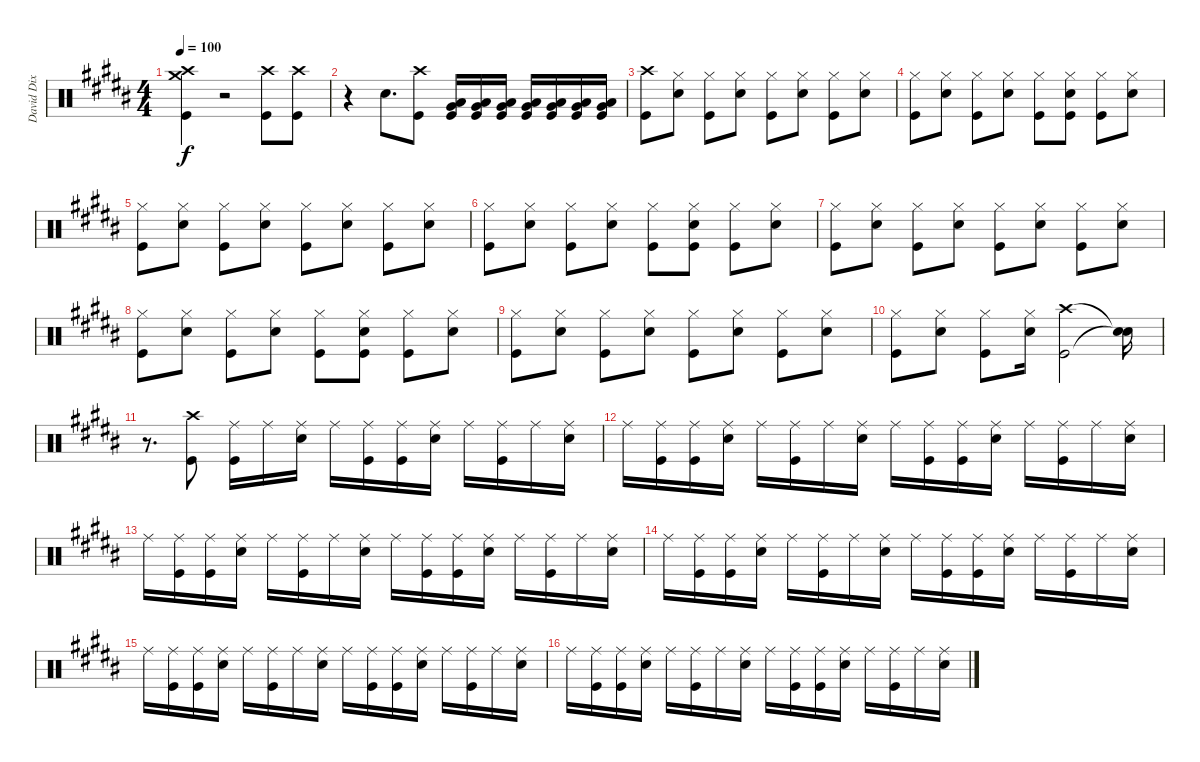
\track ("David Dix Drums" "David Dix ") {instrument percussion}
\staff {score}
\articulation defaults
\ts (4 4)
\tempo 100
\clef neutral
\ks g#minor
("Crash high (hit)" "Crash medium (hit)" "Kick (hit)").4{dy f} r.2 ("Crash high (hit)" "Kick (hit)").8 ("Crash high (hit)" "Kick (hit)").8 |
r.4 "Snare (hit) 2".8{d} ("Crash high (hit)" "Kick (hit)").8 ("Very Low Tom (hit)" "Low Floor Tom (hit)" "Kick (hit)").16 ("Very Low Tom (hit)" "Low Floor Tom (hit)" "Kick (hit)").16 ("Very Low Tom (hit)" "Low Floor Tom (hit)" "Kick (hit)").16 ("Very Low Tom (hit)" "Low Floor Tom (hit)" "Kick (hit)").16 ("Very Low Tom (hit)" "Low Floor Tom (hit)" "Kick (hit)").16 ("Very Low Tom (hit)" "Low Floor Tom (hit)" "Kick (hit)").16 ("Very Low Tom (hit)" "Low Floor Tom (hit)" "Kick (hit)").16 |
("Crash high (hit)" "Kick (hit)").8 ("Hi-Hat (closed)" "Snare (hit) 2").8 ("Hi-Hat (closed)" "Kick (hit)").8 ("Hi-Hat (closed)" "Snare (hit) 2").8 ("Hi-Hat (closed)" "Kick (hit)").8 ("Hi-Hat (closed)" "Snare (hit) 2").8 ("Hi-Hat (closed)" "Kick (hit)").8 ("Hi-Hat (closed)" "Snare (hit) 2").8 |
("Hi-Hat (closed)" "Kick (hit)").8 ("Hi-Hat (closed)" "Snare (hit) 2").8 ("Hi-Hat (closed)" "Kick (hit)").8 ("Hi-Hat (closed)" "Snare (hit) 2").8 ("Hi-Hat (closed)" "Kick (hit)").8 ("Hi-Hat (closed)" "Snare (hit) 2" "Kick (hit)").8 ("Hi-Hat (closed)" "Kick (hit)").8 ("Hi-Hat (closed)" "Snare (hit) 2").8 |
("Hi-Hat (closed)" "Kick (hit)").8 ("Hi-Hat (closed)" "Snare (hit) 2").8 ("Hi-Hat (closed)" "Kick (hit)").8 ("Hi-Hat (closed)" "Snare (hit) 2").8 ("Hi-Hat (closed)" "Kick (hit)").8 ("Hi-Hat (closed)" "Snare (hit) 2").8 ("Hi-Hat (closed)" "Kick (hit)").8 ("Hi-Hat (closed)" "Snare (hit) 2").8 |
("Hi-Hat (closed)" "Kick (hit)").8 ("Hi-Hat (closed)" "Snare (hit) 2").8 ("Hi-Hat (closed)" "Kick (hit)").8 ("Hi-Hat (closed)" "Snare (hit) 2").8 ("Hi-Hat (closed)" "Kick (hit)").8 ("Hi-Hat (closed)" "Snare (hit) 2" "Kick (hit)").8 ("Hi-Hat (closed)" "Kick (hit)").8 ("Hi-Hat (closed)" "Snare (hit) 2").8 |
("Hi-Hat (closed)" "Kick (hit)").8 ("Hi-Hat (closed)" "Snare (hit) 2").8 ("Hi-Hat (closed)" "Kick (hit)").8 ("Hi-Hat (closed)" "Snare (hit) 2").8 ("Hi-Hat (closed)" "Kick (hit)").8 ("Hi-Hat (closed)" "Snare (hit) 2").8 ("Hi-Hat (closed)" "Kick (hit)").8 ("Hi-Hat (closed)" "Snare (hit) 2").8 |
("Hi-Hat (closed)" "Kick (hit)").8 ("Hi-Hat (closed)" "Snare (hit) 2").8 ("Hi-Hat (closed)" "Kick (hit)").8 ("Hi-Hat (closed)" "Snare (hit) 2").8 ("Hi-Hat (closed)" "Kick (hit)").8 ("Hi-Hat (closed)" "Snare (hit) 2" "Kick (hit)").8 ("Hi-Hat (closed)" "Kick (hit)").8 ("Hi-Hat (closed)" "Snare (hit) 2").8 |
("Hi-Hat (closed)" "Kick (hit)").8 ("Hi-Hat (closed)" "Snare (hit) 2").8 ("Hi-Hat (closed)" "Kick (hit)").8 ("Hi-Hat (closed)" "Snare (hit) 2").8 ("Hi-Hat (closed)" "Kick (hit)").8 ("Hi-Hat (closed)" "Snare (hit) 2").8 ("Hi-Hat (closed)" "Kick (hit)").8 ("Hi-Hat (closed)" "Snare (hit) 2").8 |
("Hi-Hat (closed)" "Kick (hit)").8 ("Hi-Hat (closed)" "Snare (hit) 2").8 ("Hi-Hat (closed)" "Kick (hit)").8 ("Hi-Hat (closed)" "Snare (hit) 2").16 ("Crash high (hit)" "Kick (hit)").2 ("Snare (hit)"{t} "Snare (hit)"{t}).16 |
r.8{d} ("Crash high (hit)" "Kick (hit)").8 ("Ride (middle)" "Kick (hit)").16 "Ride (middle)".16 ("Ride (middle)" "Snare (hit) 2").16 "Ride (middle)".16 ("Ride (middle)" "Kick (hit)").16 ("Ride (middle)" "Kick (hit)").16 ("Ride (middle)" "Snare (hit) 2").16 "Ride (middle)".16 ("Ride (middle)" "Kick (hit)").16 "Ride (middle)".16 ("Ride (middle)" "Snare (hit) 2").16 |
"Ride (middle)".16 ("Ride (middle)" "Kick (hit)").16 ("Ride (middle)" "Kick (hit)").16 ("Ride (middle)" "Snare (hit) 2").16 "Ride (middle)".16 ("Ride (middle)" "Kick (hit)").16 "Ride (middle)".16 ("Ride (middle)" "Snare (hit) 2").16 "Ride (middle)".16 ("Ride (middle)" "Kick (hit)").16 ("Ride (middle)" "Kick (hit)").16 ("Ride (middle)" "Snare (hit) 2").16 "Ride (middle)".16 ("Ride (middle)" "Kick (hit)").16 "Ride (middle)".16 ("Ride (middle)" "Snare (hit) 2").16 |
"Ride (middle)".16 ("Ride (middle)" "Kick (hit)").16 ("Ride (middle)" "Kick (hit)").16 ("Ride (middle)" "Snare (hit) 2").16 "Ride (middle)".16 ("Ride (middle)" "Kick (hit)").16 "Ride (middle)".16 ("Ride (middle)" "Snare (hit) 2").16 "Ride (middle)".16 ("Ride (middle)" "Kick (hit)").16 ("Ride (middle)" "Kick (hit)").16 ("Ride (middle)" "Snare (hit) 2").16 "Ride (middle)".16 ("Ride (middle)" "Kick (hit)").16 "Ride (middle)".16 ("Ride (middle)" "Snare (hit) 2").16 |
"Ride (middle)".16 ("Ride (middle)" "Kick (hit)").16 ("Ride (middle)" "Kick (hit)").16 ("Ride (middle)" "Snare (hit) 2").16 "Ride (middle)".16 ("Ride (middle)" "Kick (hit)").16 "Ride (middle)".16 ("Ride (middle)" "Snare (hit) 2").16 "Ride (middle)".16 ("Ride (middle)" "Kick (hit)").16 ("Ride (middle)" "Kick (hit)").16 ("Ride (middle)" "Snare (hit) 2").16 "Ride (middle)".16 ("Ride (middle)" "Kick (hit)").16 "Ride (middle)".16 ("Ride (middle)" "Snare (hit) 2").16 |
"Ride (middle)".16 ("Ride (middle)" "Kick (hit)").16 ("Ride (middle)" "Kick (hit)").16 ("Ride (middle)" "Snare (hit) 2").16 "Ride (middle)".16 ("Ride (middle)" "Kick (hit)").16 "Ride (middle)".16 ("Ride (middle)" "Snare (hit) 2").16 "Ride (middle)".16 ("Ride (middle)" "Kick (hit)").16 ("Ride (middle)" "Kick (hit)").16 ("Ride (middle)" "Snare (hit) 2").16 "Ride (middle)".16 ("Ride (middle)" "Kick (hit)").16 "Ride (middle)".16 ("Ride (middle)" "Snare (hit) 2").16 |
"Ride (middle)".16 ("Ride (middle)" "Kick (hit)").16 ("Ride (middle)" "Kick (hit)").16 ("Ride (middle)" "Snare (hit) 2").16 "Ride (middle)".16 ("Ride (middle)" "Kick (hit)").16 "Ride (middle)".16 ("Ride (middle)" "Snare (hit) 2").16 "Ride (middle)".16 ("Ride (middle)" "Kick (hit)").16 ("Ride (middle)" "Kick (hit)").16 ("Ride (middle)" "Snare (hit) 2").16 "Ride (middle)".16 ("Ride (middle)" "Kick (hit)").16 "Ride (middle)".16 ("Ride (middle)" "Snare (hit) 2").16
